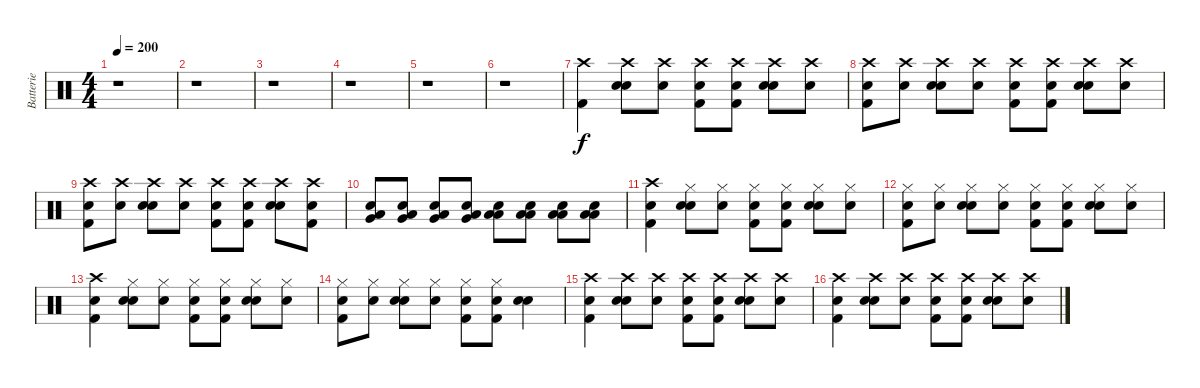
\track ("Batterie" "Batterie") {instrument percussion}
\staff {score}
\articulation defaults
\ts (4 4)
\tempo 200
\clef neutral
\ks c
r.1{dy f} |
r.1 |
r.1 |
r.1 |
r.1 |
r.1 |
("Crash high (hit)" "Kick (hit) 2").4 ("Snare (hit)" "Crash high (hit)" "Electric Snare (hit)").8 ("Snare (hit)" "Crash high (hit)").8 ("Snare (hit)" "Crash high (hit)" "Kick (hit) 2").8 ("Snare (hit)" "Crash high (hit)" "Kick (hit) 2").8 ("Snare (hit)" "Crash high (hit)" "Electric Snare (hit)").8 ("Snare (hit)" "Crash high (hit)").8 |
("Snare (hit)" "Crash high (hit)" "Kick (hit) 2").8 ("Snare (hit)" "Crash high (hit)").8 ("Snare (hit)" "Crash high (hit)" "Electric Snare (hit)").8 ("Snare (hit)" "Crash high (hit)").8 ("Snare (hit)" "Crash high (hit)" "Kick (hit) 2").8 ("Snare (hit)" "Crash high (hit)" "Kick (hit) 2").8 ("Snare (hit)" "Crash high (hit)" "Electric Snare (hit)").8 ("Snare (hit)" "Crash high (hit)").8 |
("Snare (hit)" "Crash high (hit)" "Kick (hit) 2").8 ("Snare (hit)" "Crash high (hit)").8 ("Snare (hit)" "Crash high (hit)" "Electric Snare (hit)").8 ("Snare (hit)" "Crash high (hit)").8 ("Snare (hit)" "Crash high (hit)" "Kick (hit) 2").8 ("Snare (hit)" "Crash high (hit)" "Kick (hit) 2").8 ("Snare (hit)" "Crash high (hit)" "Electric Snare (hit)").8 ("Snare (hit)" "Crash high (hit)" "Kick (hit) 2").8 |
("Snare (hit)" "Low Floor Tom (hit)" "Very Low Tom (hit)").8 ("Snare (hit)" "Low Floor Tom (hit)" "Very Low Tom (hit)").8 ("Snare (hit)" "Low Floor Tom (hit)" "Very Low Tom (hit)").8 ("Snare (hit)" "Low Floor Tom (hit)" "Very Low Tom (hit)").8 ("Snare (hit)" "Low Floor Tom (hit)" "Low Tom (hit)").8 ("Snare (hit)" "Low Floor Tom (hit)" "Low Tom (hit)").8 ("Snare (hit)" "Low Floor Tom (hit)" "Low Tom (hit)").8 ("Snare (hit)" "Low Floor Tom (hit)" "Low Tom (hit)").8 |
("Snare (hit)" "Crash high (hit)" "Kick (hit) 2").4 ("Snare (hit)" "Hi-Hat (closed)" "Electric Snare (hit)").8 ("Snare (hit)" "Hi-Hat (closed)").8 ("Snare (hit)" "Hi-Hat (closed)" "Kick (hit) 2").8 ("Snare (hit)" "Hi-Hat (closed)" "Kick (hit) 2").8 ("Snare (hit)" "Hi-Hat (closed)" "Electric Snare (hit)").8 ("Snare (hit)" "Hi-Hat (closed)").8 |
("Snare (hit)" "Hi-Hat (closed)" "Kick (hit) 2").8 ("Snare (hit)" "Hi-Hat (closed)").8 ("Snare (hit)" "Hi-Hat (closed)" "Electric Snare (hit)").8 ("Snare (hit)" "Hi-Hat (closed)").8 ("Snare (hit)" "Hi-Hat (closed)" "Kick (hit) 2").8 ("Snare (hit)" "Hi-Hat (closed)" "Kick (hit) 2").8 ("Snare (hit)" "Hi-Hat (closed)" "Electric Snare (hit)").8 ("Snare (hit)" "Hi-Hat (closed)").8 |
("Snare (hit)" "Crash high (hit)" "Kick (hit) 2").4 ("Snare (hit)" "Hi-Hat (closed)" "Electric Snare (hit)").8 ("Snare (hit)" "Hi-Hat (closed)").8 ("Snare (hit)" "Hi-Hat (closed)" "Kick (hit) 2").8 ("Snare (hit)" "Hi-Hat (closed)" "Kick (hit) 2").8 ("Snare (hit)" "Hi-Hat (closed)" "Electric Snare (hit)").8 ("Snare (hit)" "Hi-Hat (closed)").8 |
("Snare (hit)" "Kick (hit) 2" "Hi-Hat (closed)").8 ("Snare (hit)" "Hi-Hat (closed)").8 ("Snare (hit)" "Electric Snare (hit)" "Hi-Hat (closed)").8 ("Snare (hit)" "Hi-Hat (closed)").8 ("Snare (hit)" "Kick (hit) 2" "Hi-Hat (closed)").8 ("Snare (hit)" "Kick (hit) 2" "Hi-Hat (closed)").8 ("Snare (hit)" "Electric Snare (hit)").4 |
("Snare (hit)" "Kick (hit) 2" "Crash high (hit)").4 ("Snare (hit)" "Electric Snare (hit)" "Crash high (hit)").8 ("Snare (hit)" "Crash high (hit)").8 ("Snare (hit)" "Kick (hit) 2" "Crash high (hit)").8 ("Snare (hit)" "Kick (hit) 2" "Crash high (hit)").8 ("Snare (hit)" "Electric Snare (hit)" "Crash high (hit)").8 ("Snare (hit)" "Crash high (hit)").8 |
("Snare (hit)" "Kick (hit) 2" "Crash high (hit)").4 ("Snare (hit)" "Electric Snare (hit)" "Crash high (hit)").8 ("Snare (hit)" "Crash high (hit)").8 ("Snare (hit)" "Kick (hit) 2" "Crash high (hit)").8 ("Snare (hit)" "Kick (hit) 2" "Crash high (hit)").8 ("Snare (hit)" "Electric Snare (hit)" "Crash high (hit)").8 ("Snare (hit)" "Crash high (hit)").8
